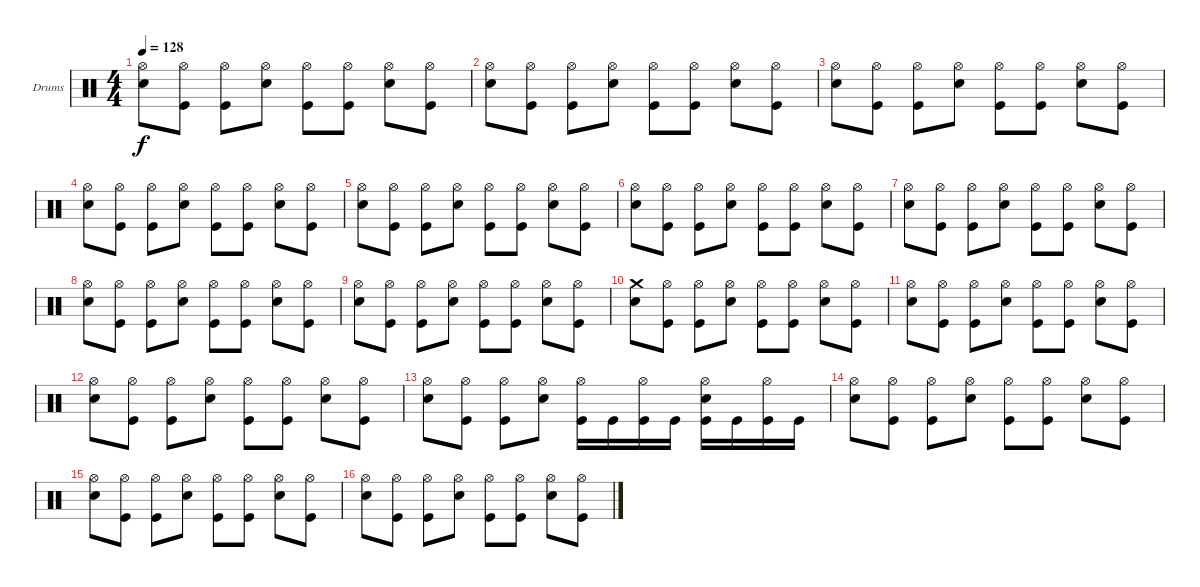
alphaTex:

\bracketExtendMode groupsimilarinstruments
\firstSystemTrackNameOrientation horizontal
\otherSystemsTrackNameOrientation horizontal
\track ("Drumkit (Christoph)" "Drums") {instrument percussion}
\staff {score}
\articulation defaults
\ts (4 4)
\tempo 128
\clef neutral
\ks c
("Snare (hit) 2" "Hi-Hat (open)").8{dy f} ("Kick (hit)" "Hi-Hat (open)").8 ("Kick (hit)" "Hi-Hat (open)").8 ("Snare (hit) 2" "Hi-Hat (open)").8 ("Kick (hit)" "Hi-Hat (open)").8 ("Kick (hit)" "Hi-Hat (open)").8 ("Snare (hit) 2" "Hi-Hat (open)").8 ("Kick (hit)" "Hi-Hat (open)").8 |
("Snare (hit) 2" "Hi-Hat (open)").8 ("Kick (hit)" "Hi-Hat (open)").8 ("Kick (hit)" "Hi-Hat (open)").8 ("Snare (hit) 2" "Hi-Hat (open)").8 ("Kick (hit)" "Hi-Hat (open)").8 ("Kick (hit)" "Hi-Hat (open)").8 ("Snare (hit) 2" "Hi-Hat (open)").8 ("Kick (hit)" "Hi-Hat (open)").8 |
("Snare (hit) 2" "Hi-Hat (open)").8 ("Kick (hit)" "Hi-Hat (open)").8 ("Kick (hit)" "Hi-Hat (open)").8 ("Snare (hit) 2" "Hi-Hat (open)").8 ("Kick (hit)" "Hi-Hat (open)").8 ("Kick (hit)" "Hi-Hat (open)").8 ("Snare (hit) 2" "Hi-Hat (open)").8 ("Kick (hit)" "Hi-Hat (open)").8 |
("Snare (hit) 2" "Hi-Hat (open)").8 ("Kick (hit)" "Hi-Hat (open)").8 ("Kick (hit)" "Hi-Hat (open)").8 ("Snare (hit) 2" "Hi-Hat (open)").8 ("Kick (hit)" "Hi-Hat (open)").8 ("Kick (hit)" "Hi-Hat (open)").8 ("Snare (hit) 2" "Hi-Hat (open)").8 ("Kick (hit)" "Hi-Hat (open)").8 |
("Snare (hit) 2" "Hi-Hat (open)").8 ("Kick (hit)" "Hi-Hat (open)").8 ("Kick (hit)" "Hi-Hat (open)").8 ("Snare (hit) 2" "Hi-Hat (open)").8 ("Kick (hit)" "Hi-Hat (open)").8 ("Kick (hit)" "Hi-Hat (open)").8 ("Snare (hit) 2" "Hi-Hat (open)").8 ("Kick (hit)" "Hi-Hat (open)").8 |
("Snare (hit) 2" "Hi-Hat (open)").8 ("Kick (hit)" "Hi-Hat (open)").8 ("Kick (hit)" "Hi-Hat (open)").8 ("Snare (hit) 2" "Hi-Hat (open)").8 ("Kick (hit)" "Hi-Hat (open)").8 ("Kick (hit)" "Hi-Hat (open)").8 ("Snare (hit) 2" "Hi-Hat (open)").8 ("Kick (hit)" "Hi-Hat (open)").8 |
("Snare (hit) 2" "Hi-Hat (open)").8 ("Kick (hit)" "Hi-Hat (open)").8 ("Kick (hit)" "Hi-Hat (open)").8 ("Snare (hit) 2" "Hi-Hat (open)").8 ("Kick (hit)" "Hi-Hat (open)").8 ("Kick (hit)" "Hi-Hat (open)").8 ("Snare (hit) 2" "Hi-Hat (open)").8 ("Kick (hit)" "Hi-Hat (open)").8 |
("Snare (hit) 2" "Hi-Hat (open)").8 ("Kick (hit)" "Hi-Hat (open)").8 ("Kick (hit)" "Hi-Hat (open)").8 ("Snare (hit) 2" "Hi-Hat (open)").8 ("Kick (hit)" "Hi-Hat (open)").8 ("Kick (hit)" "Hi-Hat (open)").8 ("Snare (hit) 2" "Hi-Hat (open)").8 ("Kick (hit)" "Hi-Hat (open)").8 |
("Snare (hit) 2" "Hi-Hat (open)").8 ("Kick (hit)" "Hi-Hat (open)").8 ("Kick (hit)" "Hi-Hat (open)").8 ("Snare (hit) 2" "Hi-Hat (open)").8 ("Kick (hit)" "Hi-Hat (open)").8 ("Kick (hit)" "Hi-Hat (open)").8 ("Snare (hit) 2" "Hi-Hat (open)").8 ("Kick (hit)" "Hi-Hat (open)").8 |
("Crash medium (hit)" "Snare (hit) 2").8 ("Kick (hit)" "Hi-Hat (open)").8 ("Kick (hit)" "Hi-Hat (open)").8 ("Snare (hit) 2" "Hi-Hat (open)").8 ("Kick (hit)" "Hi-Hat (open)").8 ("Kick (hit)" "Hi-Hat (open)").8 ("Snare (hit) 2" "Hi-Hat (open)").8 ("Kick (hit)" "Hi-Hat (open)").8 |
("Snare (hit) 2" "Hi-Hat (open)").8 ("Kick (hit)" "Hi-Hat (open)").8 ("Kick (hit)" "Hi-Hat (open)").8 ("Snare (hit) 2" "Hi-Hat (open)").8 ("Kick (hit)" "Hi-Hat (open)").8 ("Kick (hit)" "Hi-Hat (open)").8 ("Snare (hit) 2" "Hi-Hat (open)").8 ("Kick (hit)" "Hi-Hat (open)").8 |
("Snare (hit) 2" "Hi-Hat (open)").8 ("Kick (hit)" "Hi-Hat (open)").8 ("Kick (hit)" "Hi-Hat (open)").8 ("Snare (hit) 2" "Hi-Hat (open)").8 ("Kick (hit)" "Hi-Hat (open)").8 ("Kick (hit)" "Hi-Hat (open)").8 ("Snare (hit) 2" "Hi-Hat (open)").8 ("Kick (hit)" "Hi-Hat (open)").8 |
("Snare (hit) 2" "Hi-Hat (open)").8 ("Kick (hit)" "Hi-Hat (open)").8 ("Kick (hit)" "Hi-Hat (open)").8 ("Snare (hit) 2" "Hi-Hat (open)").8 ("Kick (hit)" "Hi-Hat (open)").16 "Kick (hit)".16 ("Kick (hit)" "Hi-Hat (open)").16 "Kick (hit)".16 ("Kick (hit)" "Snare (hit) 2" "Hi-Hat (open)").16 "Kick (hit)".16 ("Kick (hit)" "Hi-Hat (open)").16 "Kick (hit)".16 |
("Snare (hit) 2" "Hi-Hat (open)").8 ("Kick (hit)" "Hi-Hat (open)").8 ("Kick (hit)" "Hi-Hat (open)").8 ("Snare (hit) 2" "Hi-Hat (open)").8 ("Kick (hit)" "Hi-Hat (open)").8 ("Kick (hit)" "Hi-Hat (open)").8 ("Snare (hit) 2" "Hi-Hat (open)").8 ("Kick (hit)" "Hi-Hat (open)").8 |
("Snare (hit) 2" "Hi-Hat (open)").8 ("Kick (hit)" "Hi-Hat (open)").8 ("Kick (hit)" "Hi-Hat (open)").8 ("Snare (hit) 2" "Hi-Hat (open)").8 ("Kick (hit)" "Hi-Hat (open)").8 ("Kick (hit)" "Hi-Hat (open)").8 ("Snare (hit) 2" "Hi-Hat (open)").8 ("Kick (hit)" "Hi-Hat (open)").8 |
("Snare (hit) 2" "Hi-Hat (open)").8 ("Kick (hit)" "Hi-Hat (open)").8 ("Kick (hit)" "Hi-Hat (open)").8 ("Snare (hit) 2" "Hi-Hat (open)").8 ("Kick (hit)" "Hi-Hat (open)").8 ("Kick (hit)" "Hi-Hat (open)").8 ("Snare (hit) 2" "Hi-Hat (open)").8 ("Kick (hit)" "Hi-Hat (open)").8
